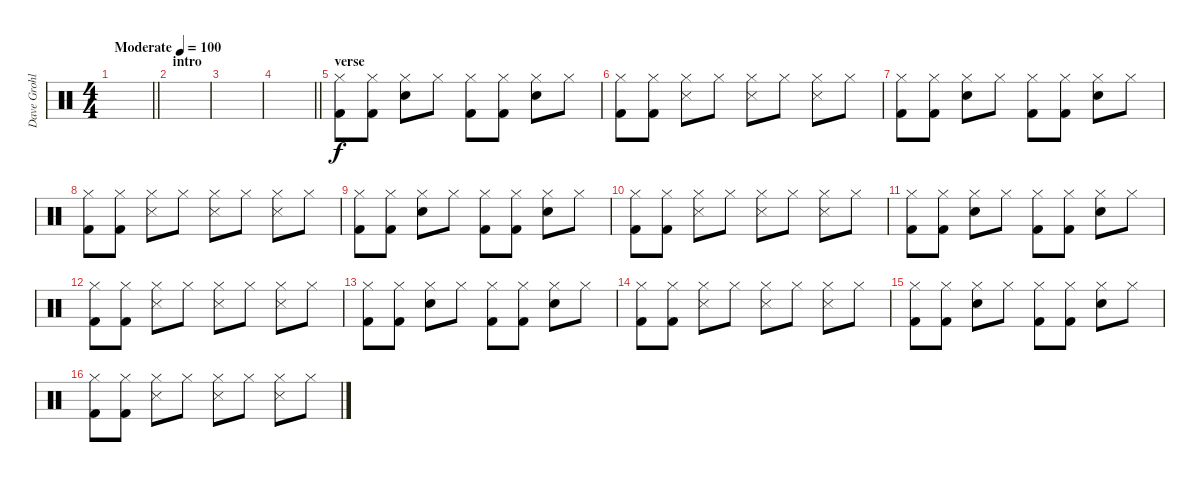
\track ("Dave Grohl" "Dave Grohl") {instrument percussion}
\staff {score}
\articulation defaults
\ts (4 4)
\tempo (100 "Moderate")
\clef neutral
\barLineRight lightlight
\ks c
|
\section ("" "intro")
|
|
\barLineRight lightlight
|
\section ("" "verse")
("Hi-Hat (closed)" "Kick (hit) 2").8 ("Hi-Hat (closed)" "Kick (hit) 2").8 ("Hi-Hat (closed)" "Snare (hit) 2").8 "Hi-Hat (closed)".8 ("Hi-Hat (closed)" "Kick (hit) 2").8 ("Hi-Hat (closed)" "Kick (hit) 2").8 ("Hi-Hat (closed)" "Snare (hit) 2").8 "Hi-Hat (closed)".8 |
("Hi-Hat (closed)" "Kick (hit) 2").8 ("Hi-Hat (closed)" "Kick (hit) 2").8 ("Hi-Hat (closed)" "Snare (side stick) 3").8 "Hi-Hat (closed)".8 ("Hi-Hat (closed)" "Snare (side stick) 3").8 "Hi-Hat (closed)".8 ("Hi-Hat (closed)" "Snare (side stick) 3").8 "Hi-Hat (closed)".8 |
("Hi-Hat (closed)" "Kick (hit) 2").8 ("Hi-Hat (closed)" "Kick (hit) 2").8 ("Hi-Hat (closed)" "Snare (hit) 2").8 "Hi-Hat (closed)".8 ("Hi-Hat (closed)" "Kick (hit) 2").8 ("Hi-Hat (closed)" "Kick (hit) 2").8 ("Hi-Hat (closed)" "Snare (hit) 2").8 "Hi-Hat (closed)".8 |
("Hi-Hat (closed)" "Kick (hit) 2").8 ("Hi-Hat (closed)" "Kick (hit) 2").8 ("Hi-Hat (closed)" "Snare (side stick) 3").8 "Hi-Hat (closed)".8 ("Hi-Hat (closed)" "Snare (side stick) 3").8 "Hi-Hat (closed)".8 ("Hi-Hat (closed)" "Snare (side stick) 3").8 "Hi-Hat (closed)".8 |
("Hi-Hat (closed)" "Kick (hit) 2").8 ("Hi-Hat (closed)" "Kick (hit) 2").8 ("Hi-Hat (closed)" "Snare (hit) 2").8 "Hi-Hat (closed)".8 ("Hi-Hat (closed)" "Kick (hit) 2").8 ("Hi-Hat (closed)" "Kick (hit) 2").8 ("Hi-Hat (closed)" "Snare (hit) 2").8 "Hi-Hat (closed)".8 |
("Hi-Hat (closed)" "Kick (hit) 2").8 ("Hi-Hat (closed)" "Kick (hit) 2").8 ("Hi-Hat (closed)" "Snare (side stick) 3").8 "Hi-Hat (closed)".8 ("Hi-Hat (closed)" "Snare (side stick) 3").8 "Hi-Hat (closed)".8 ("Hi-Hat (closed)" "Snare (side stick) 3").8 "Hi-Hat (closed)".8 |
("Hi-Hat (closed)" "Kick (hit) 2").8 ("Hi-Hat (closed)" "Kick (hit) 2").8 ("Hi-Hat (closed)" "Snare (hit) 2").8 "Hi-Hat (closed)".8 ("Hi-Hat (closed)" "Kick (hit) 2").8 ("Hi-Hat (closed)" "Kick (hit) 2").8 ("Hi-Hat (closed)" "Snare (hit) 2").8 "Hi-Hat (closed)".8 |
("Hi-Hat (closed)" "Kick (hit) 2").8 ("Hi-Hat (closed)" "Kick (hit) 2").8 ("Hi-Hat (closed)" "Snare (side stick) 3").8 "Hi-Hat (closed)".8 ("Hi-Hat (closed)" "Snare (side stick) 3").8 "Hi-Hat (closed)".8 ("Hi-Hat (closed)" "Snare (side stick) 3").8 "Hi-Hat (closed)".8 |
("Hi-Hat (closed)" "Kick (hit) 2").8 ("Hi-Hat (closed)" "Kick (hit) 2").8 ("Hi-Hat (closed)" "Snare (hit) 2").8 "Hi-Hat (closed)".8 ("Hi-Hat (closed)" "Kick (hit) 2").8 ("Hi-Hat (closed)" "Kick (hit) 2").8 ("Hi-Hat (closed)" "Snare (hit) 2").8 "Hi-Hat (closed)".8 |
("Hi-Hat (closed)" "Kick (hit) 2").8 ("Hi-Hat (closed)" "Kick (hit) 2").8 ("Hi-Hat (closed)" "Snare (side stick) 3").8 "Hi-Hat (closed)".8 ("Hi-Hat (closed)" "Snare (side stick) 3").8 "Hi-Hat (closed)".8 ("Hi-Hat (closed)" "Snare (side stick) 3").8 "Hi-Hat (closed)".8 |
("Hi-Hat (closed)" "Kick (hit) 2").8 ("Hi-Hat (closed)" "Kick (hit) 2").8 ("Hi-Hat (closed)" "Snare (hit) 2").8 "Hi-Hat (closed)".8 ("Hi-Hat (closed)" "Kick (hit) 2").8 ("Hi-Hat (closed)" "Kick (hit) 2").8 ("Hi-Hat (closed)" "Snare (hit) 2").8 "Hi-Hat (closed)".8 |
("Hi-Hat (closed)" "Kick (hit) 2").8 ("Hi-Hat (closed)" "Kick (hit) 2").8 ("Hi-Hat (closed)" "Snare (side stick) 3").8 "Hi-Hat (closed)".8 ("Hi-Hat (closed)" "Snare (side stick) 3").8 "Hi-Hat (closed)".8 ("Hi-Hat (closed)" "Snare (side stick) 3").8 "Hi-Hat (closed)".8
